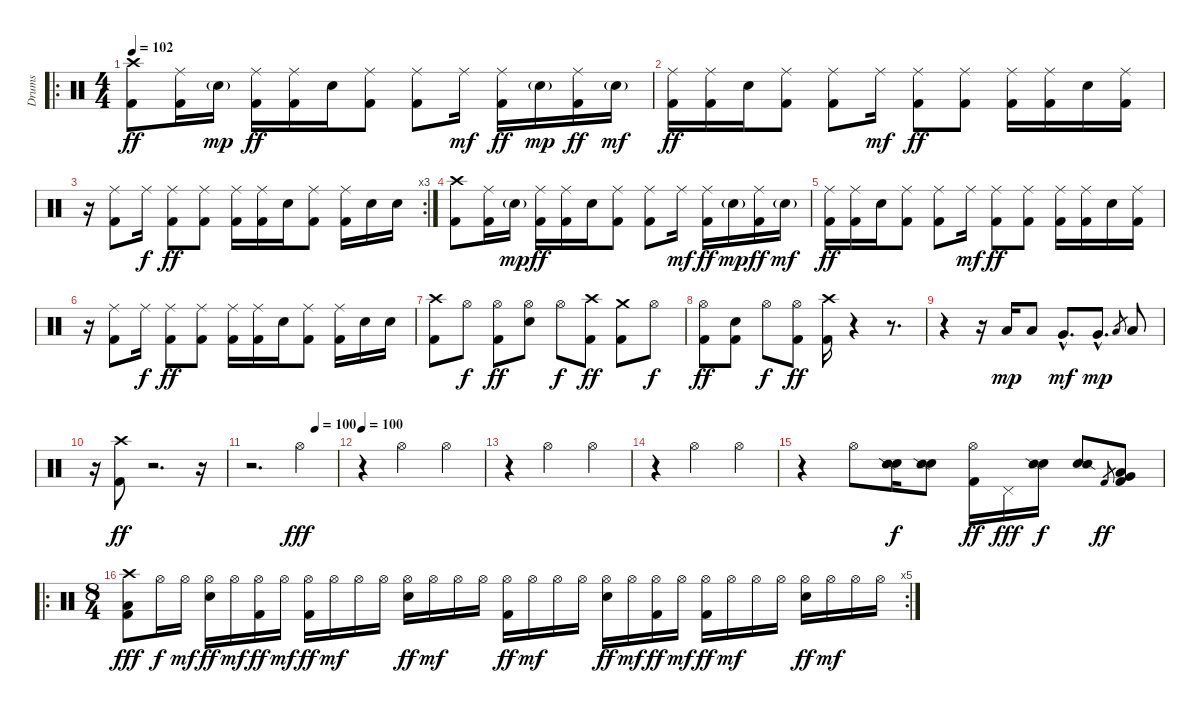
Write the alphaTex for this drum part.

\track ("Drums" "Drums") {instrument percussion}
\staff {score}
\articulation defaults
\ro
\ts (4 4)
\tempo 102
\clef neutral
\ks c
("Crash high (hit)" "Kick (hit) 2").8{dy ff} ("Ride (middle)" "Kick (hit) 2").16 "Electric Snare (hit)"{g}.16{dy mp} ("Ride (middle)" "Kick (hit) 2").16{dy ff} ("Ride (middle)" "Kick (hit) 2").16 "Electric Snare (hit)".16 ("Ride (middle)" "Kick (hit) 2").8 ("Ride (middle)" "Kick (hit) 2").8 "Ride (middle)".16{dy mf} ("Ride (middle)" "Kick (hit) 2").16{dy ff} "Electric Snare (hit)"{g}.16{dy mp} ("Ride (middle)" "Kick (hit) 2").16{dy ff} "Electric Snare (hit)"{g}.16{dy mf} |
("Ride (middle)" "Kick (hit) 2").16{dy ff} ("Ride (middle)" "Kick (hit) 2").16 "Electric Snare (hit)".16 ("Ride (middle)" "Kick (hit) 2").8 ("Ride (middle)" "Kick (hit) 2").8 "Ride (middle)".16{dy mf} ("Ride (middle)" "Kick (hit) 2").8{dy ff} ("Ride (middle)" "Kick (hit) 2").8 ("Ride (middle)" "Kick (hit) 2").16 ("Ride (middle)" "Kick (hit) 2").16 "Electric Snare (hit)".16 ("Ride (middle)" "Kick (hit) 2").16 |
\rc 3
r.16 ("Ride (middle)" "Kick (hit) 2").8 "Ride (middle)".16{dy f} ("Ride (middle)" "Kick (hit) 2").8{dy ff} ("Ride (middle)" "Kick (hit) 2").8 ("Ride (middle)" "Kick (hit) 2").16 ("Ride (middle)" "Kick (hit) 2").16 "Electric Snare (hit)".16 ("Ride (middle)" "Kick (hit) 2").8 ("Ride (middle)" "Kick (hit) 2").16 "Electric Snare (hit)".16 "Electric Snare (hit)".16 |
("Crash high (hit)" "Kick (hit) 2").8 ("Ride (middle)" "Kick (hit) 2").16 "Electric Snare (hit)"{g}.16{dy mp} ("Ride (middle)" "Kick (hit) 2").16{dy ff} ("Ride (middle)" "Kick (hit) 2").16 "Electric Snare (hit)".16 ("Ride (middle)" "Kick (hit) 2").8 ("Ride (middle)" "Kick (hit) 2").8 "Ride (middle)".16{dy mf} ("Ride (middle)" "Kick (hit) 2").16{dy ff} "Electric Snare (hit)"{g}.16{dy mp} ("Ride (middle)" "Kick (hit) 2").16{dy ff} "Electric Snare (hit)"{g}.16{dy mf} |
("Ride (middle)" "Kick (hit) 2").16{dy ff} ("Ride (middle)" "Kick (hit) 2").16 "Electric Snare (hit)".16 ("Ride (middle)" "Kick (hit) 2").8 ("Ride (middle)" "Kick (hit) 2").8 "Ride (middle)".16{dy mf} ("Ride (middle)" "Kick (hit) 2").8{dy ff} ("Ride (middle)" "Kick (hit) 2").8 ("Ride (middle)" "Kick (hit) 2").16 ("Ride (middle)" "Kick (hit) 2").16 "Electric Snare (hit)".16 ("Ride (middle)" "Kick (hit) 2").16 |
r.16 ("Ride (middle)" "Kick (hit) 2").8 "Ride (middle)".16{dy f} ("Ride (middle)" "Kick (hit) 2").8{dy ff} ("Ride (middle)" "Kick (hit) 2").8 ("Ride (middle)" "Kick (hit) 2").16 ("Ride (middle)" "Kick (hit) 2").16 "Electric Snare (hit)".16 ("Ride (middle)" "Kick (hit) 2").8 ("Ride (middle)" "Kick (hit) 2").16 "Electric Snare (hit)".16 "Electric Snare (hit)".16 |
("Crash high (hit)" "Kick (hit) 2").8 "Hi-Hat (open)".8{dy f} ("Hi-Hat (open)" "Kick (hit) 2").8{dy ff} ("Hi-Hat (open)" "Electric Snare (hit)").8 "Hi-Hat (open)".8{dy f} ("Crash high (hit)" "Kick (hit) 2").8{dy ff} ("Crash medium (hit)" "Kick (hit) 2").8 "Hi-Hat (open)".8{dy f} |
("Hi-Hat (open)" "Kick (hit) 2").8{dy ff} ("Electric Snare (hit)" "Kick (hit) 2").8 "Hi-Hat (open)".8{dy f} ("Hi-Hat (open)" "Kick (hit) 2").8{dy ff} ("Crash high (hit)" "Kick (hit) 2").16 r.4 r.8{d} |
r.4 r.16 "Low Tom (hit)".16{dy mp} "Low Tom (hit)".8 "Very Low Tom (hit)"{hac}.8{d dy mf} "Very Low Tom (hit)"{hac}.8{d dy mp} "Low Floor Tom (hit)".8{gr} "Low Floor Tom (hit)".8 |
r.16 ("Crash high (hit)" "Kick (hit) 2").8{dy ff} r.2{d} r.16 |
\tempo (100 0.75)
r.2{d} "Hi-Hat (open)".4{dy fff} |
\tempo 100
r.4 "Hi-Hat (open)".2 "Hi-Hat (open)".4 |
r.4 "Hi-Hat (open)".2 "Hi-Hat (open)".4 |
r.4 "Hi-Hat (open)".2 "Hi-Hat (open)".4 |
r.4 "Hi-Hat (open)".8 ("Electric Snare (hit)" "Snare (side stick) 2").16{dy f} ("Electric Snare (hit)" "Snare (side stick) 2").8 ("Hi-Hat (open)" "Kick (hit) 2").16{dy ff} "Pedal Hi-Hat (hit)".16{dy fff} ("Electric Snare (hit)" "Snare (side stick) 2").16{dy f} ("Electric Snare (hit)" "Snare (side stick) 2").8 "Kick (hit) 2".8{gr dy ff} ("Very Low Tom (hit)" "Low Floor Tom (hit)" "Kick (hit) 2").8 |
\ro
\rc 5
\ts (8 4)
("Crash high (hit)" "Low Floor Tom (hit)" "Kick (hit) 2").8{dy fff} "Hi-Hat (open)".16{dy f} "Hi-Hat (open)".16{dy mf} ("Hi-Hat (open)" "Electric Snare (hit)").16{dy ff} "Hi-Hat (open)".16{dy mf} ("Hi-Hat (open)" "Kick (hit) 2").16{dy ff} "Hi-Hat (open)".16{dy mf} ("Hi-Hat (open)" "Kick (hit) 2").16{dy ff} "Hi-Hat (open)".16{dy mf} "Hi-Hat (open)".16 "Hi-Hat (open)".16 ("Hi-Hat (open)" "Electric Snare (hit)").16{dy ff} "Hi-Hat (open)".16{dy mf} "Hi-Hat (open)".16 "Hi-Hat (open)".16 ("Hi-Hat (open)" "Kick (hit) 2").16{dy ff} "Hi-Hat (open)".16{dy mf} "Hi-Hat (open)".16 "Hi-Hat (open)".16 ("Hi-Hat (open)" "Electric Snare (hit)").16{dy ff} "Hi-Hat (open)".16{dy mf} ("Hi-Hat (open)" "Kick (hit) 2").16{dy ff} "Hi-Hat (open)".16{dy mf} ("Hi-Hat (open)" "Kick (hit) 2").16{dy ff} "Hi-Hat (open)".16{dy mf} "Hi-Hat (open)".16 "Hi-Hat (open)".16 ("Hi-Hat (open)" "Electric Snare (hit)").16{dy ff} "Hi-Hat (open)".16{dy mf} "Hi-Hat (open)".16 "Hi-Hat (open)".16
